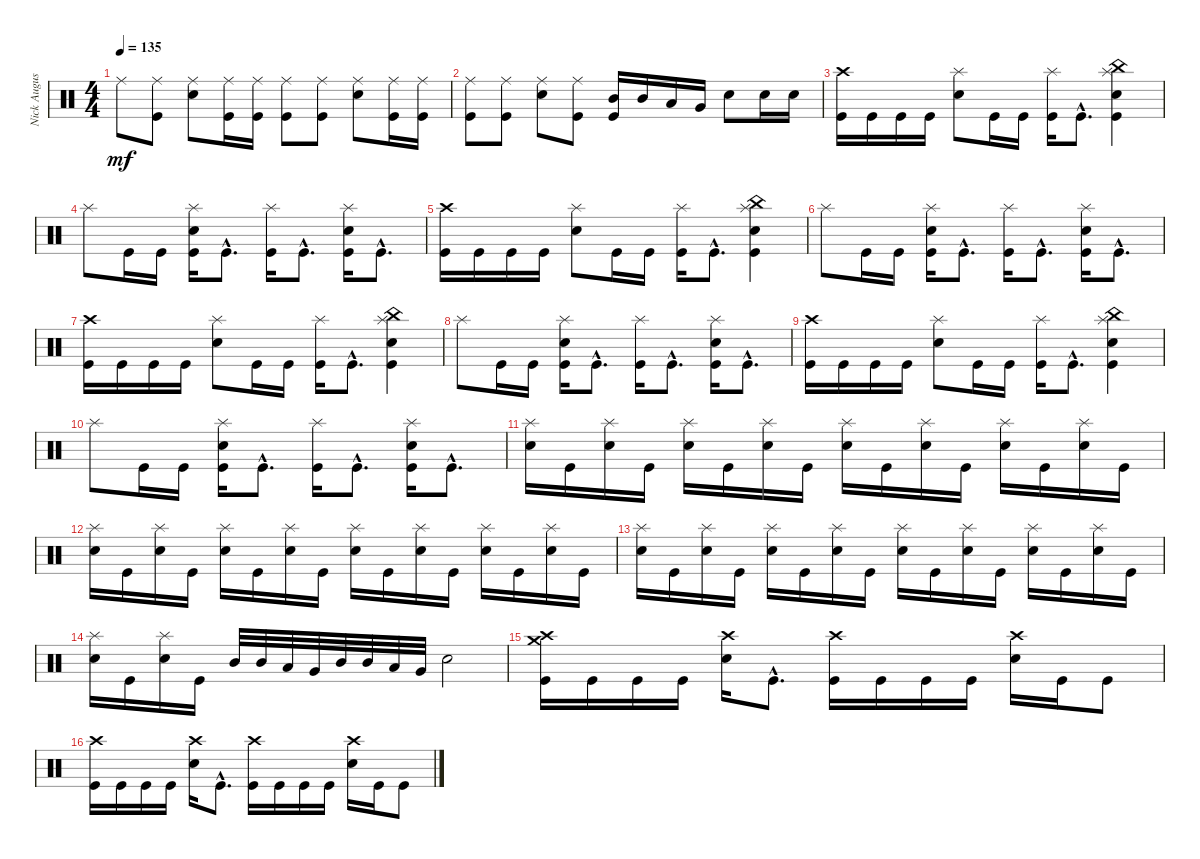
\track ("Nick Augusto" "Nick Augus") {instrument percussion}
\staff {score}
\articulation defaults
\ts (4 4)
\tempo 135
\clef neutral
\ks c "Ride (middle)".8{dy mf}
("Kick (hit)" "Ride (middle)").8 ("Snare (hit) 2" "Ride (middle)").8 ("Kick (hit)" "Ride (middle)").16 ("Kick (hit)" "Ride (middle)").16 ("Kick (hit)" "Ride (middle)").8 ("Kick (hit)" "Ride (middle)").8 ("Snare (hit) 2" "Ride (middle)").8 ("Kick (hit)" "Ride (middle)").16 ("Kick (hit)" "Ride (middle)").16 |
("Kick (hit)" "Ride (middle)").8 ("Kick (hit)" "Ride (middle)").8 ("Snare (hit) 2" "Ride (middle)").8 ("Kick (hit)" "Ride (middle)").8 ("Kick (hit)" "Mid Tom (hit)").16 "Mid Tom (hit)".16 "Low Tom (hit)".16 "Very Low Tom (hit)".16 "Snare (hit) 2".8 "Snare (hit) 2".16 "Snare (hit) 2".16 |
("Kick (hit)" "Crash high (hit)").16 "Kick (hit)".16 "Kick (hit)".16 "Kick (hit)".16 ("Snare (hit) 2" "Splash (hit)").8 "Kick (hit)".16 "Kick (hit)".16 ("Kick (hit)" "Splash (hit)").16 "Kick (hit)"{hac}.8{d} ("Kick (hit)" "Snare (hit) 2" "China (hit)" "Splash (hit)").4 |
"Splash (hit)".8 "Kick (hit)".16 "Kick (hit)".16 ("Kick (hit)" "Snare (hit) 2" "Splash (hit)").16 "Kick (hit)"{hac}.8{d} ("Kick (hit)" "Splash (hit)").16 "Kick (hit)"{hac}.8{d} ("Kick (hit)" "Snare (hit) 2" "Splash (hit)").16 "Kick (hit)"{hac}.8{d} |
("Kick (hit)" "Crash high (hit)").16 "Kick (hit)".16 "Kick (hit)".16 "Kick (hit)".16 ("Snare (hit) 2" "Splash (hit)").8 "Kick (hit)".16 "Kick (hit)".16 ("Kick (hit)" "Splash (hit)").16 "Kick (hit)"{hac}.8{d} ("Kick (hit)" "Snare (hit) 2" "China (hit)" "Splash (hit)").4 |
"Splash (hit)".8 "Kick (hit)".16 "Kick (hit)".16 ("Kick (hit)" "Snare (hit) 2" "Splash (hit)").16 "Kick (hit)"{hac}.8{d} ("Kick (hit)" "Splash (hit)").16 "Kick (hit)"{hac}.8{d} ("Kick (hit)" "Snare (hit) 2" "Splash (hit)").16 "Kick (hit)"{hac}.8{d} |
("Kick (hit)" "Crash high (hit)").16 "Kick (hit)".16 "Kick (hit)".16 "Kick (hit)".16 ("Snare (hit) 2" "Splash (hit)").8 "Kick (hit)".16 "Kick (hit)".16 ("Kick (hit)" "Splash (hit)").16 "Kick (hit)"{hac}.8{d} ("Kick (hit)" "Snare (hit) 2" "China (hit)" "Splash (hit)").4 |
"Splash (hit)".8 "Kick (hit)".16 "Kick (hit)".16 ("Kick (hit)" "Snare (hit) 2" "Splash (hit)").16 "Kick (hit)"{hac}.8{d} ("Kick (hit)" "Splash (hit)").16 "Kick (hit)"{hac}.8{d} ("Kick (hit)" "Snare (hit) 2" "Splash (hit)").16 "Kick (hit)"{hac}.8{d} |
("Kick (hit)" "Crash high (hit)").16 "Kick (hit)".16 "Kick (hit)".16 "Kick (hit)".16 ("Snare (hit) 2" "Splash (hit)").8 "Kick (hit)".16 "Kick (hit)".16 ("Kick (hit)" "Splash (hit)").16 "Kick (hit)"{hac}.8{d} ("Kick (hit)" "Snare (hit) 2" "China (hit)" "Splash (hit)").4 |
"Splash (hit)".8 "Kick (hit)".16 "Kick (hit)".16 ("Kick (hit)" "Snare (hit) 2" "Splash (hit)").16 "Kick (hit)"{hac}.8{d} ("Kick (hit)" "Splash (hit)").16 "Kick (hit)"{hac}.8{d} ("Kick (hit)" "Snare (hit) 2" "Splash (hit)").16 "Kick (hit)"{hac}.8{d} |
("Snare (hit) 2" "Splash (hit)").16 "Kick (hit)".16 ("Snare (hit) 2" "Splash (hit)").16 "Kick (hit)".16 ("Snare (hit) 2" "Splash (hit)").16 "Kick (hit)".16 ("Snare (hit) 2" "Splash (hit)").16 "Kick (hit)".16 ("Snare (hit) 2" "Splash (hit)").16 "Kick (hit)".16 ("Snare (hit) 2" "Splash (hit)").16 "Kick (hit)".16 ("Snare (hit) 2" "Splash (hit)").16 "Kick (hit)".16 ("Snare (hit) 2" "Splash (hit)").16 "Kick (hit)".16 |
("Snare (hit) 2" "Splash (hit)").16 "Kick (hit)".16 ("Snare (hit) 2" "Splash (hit)").16 "Kick (hit)".16 ("Snare (hit) 2" "Splash (hit)").16 "Kick (hit)".16 ("Snare (hit) 2" "Splash (hit)").16 "Kick (hit)".16 ("Snare (hit) 2" "Splash (hit)").16 "Kick (hit)".16 ("Snare (hit) 2" "Splash (hit)").16 "Kick (hit)".16 ("Snare (hit) 2" "Splash (hit)").16 "Kick (hit)".16 ("Snare (hit) 2" "Splash (hit)").16 "Kick (hit)".16 |
("Snare (hit) 2" "Splash (hit)").16 "Kick (hit)".16 ("Snare (hit) 2" "Splash (hit)").16 "Kick (hit)".16 ("Snare (hit) 2" "Splash (hit)").16 "Kick (hit)".16 ("Snare (hit) 2" "Splash (hit)").16 "Kick (hit)".16 ("Snare (hit) 2" "Splash (hit)").16 "Kick (hit)".16 ("Snare (hit) 2" "Splash (hit)").16 "Kick (hit)".16 ("Snare (hit) 2" "Splash (hit)").16 "Kick (hit)".16 ("Snare (hit) 2" "Splash (hit)").16 "Kick (hit)".16 |
("Snare (hit) 2" "Splash (hit)").16 "Kick (hit)".16 ("Snare (hit) 2" "Splash (hit)").16 "Kick (hit)".16 "Mid Tom (hit)".32 "Mid Tom (hit)".32 "Low Tom (hit)".32 "Very Low Tom (hit)".32 "Mid Tom (hit)".32 "Mid Tom (hit)".32 "Low Tom (hit)".32 "Very Low Tom (hit)".32 "Snare (hit) 2".2 |
("Kick (hit)" "Crash high (hit)" "Crash medium (hit)").16 "Kick (hit)".16 "Kick (hit)".16 "Kick (hit)".16 ("Snare (hit) 2" "Crash high (hit)").16 "Kick (hit)"{hac}.8{d} ("Kick (hit)" "Crash high (hit)").16 "Kick (hit)".16 "Kick (hit)".16 "Kick (hit)".16 ("Snare (hit) 2" "Crash high (hit)").16 "Kick (hit)".16 "Kick (hit)".8 |
("Kick (hit)" "Crash high (hit)").16 "Kick (hit)".16 "Kick (hit)".16 "Kick (hit)".16 ("Snare (hit) 2" "Crash high (hit)").16 "Kick (hit)"{hac}.8{d} ("Kick (hit)" "Crash high (hit)").16 "Kick (hit)".16 "Kick (hit)".16 "Kick (hit)".16 ("Snare (hit) 2" "Crash high (hit)").16 "Kick (hit)".16 "Kick (hit)".8
